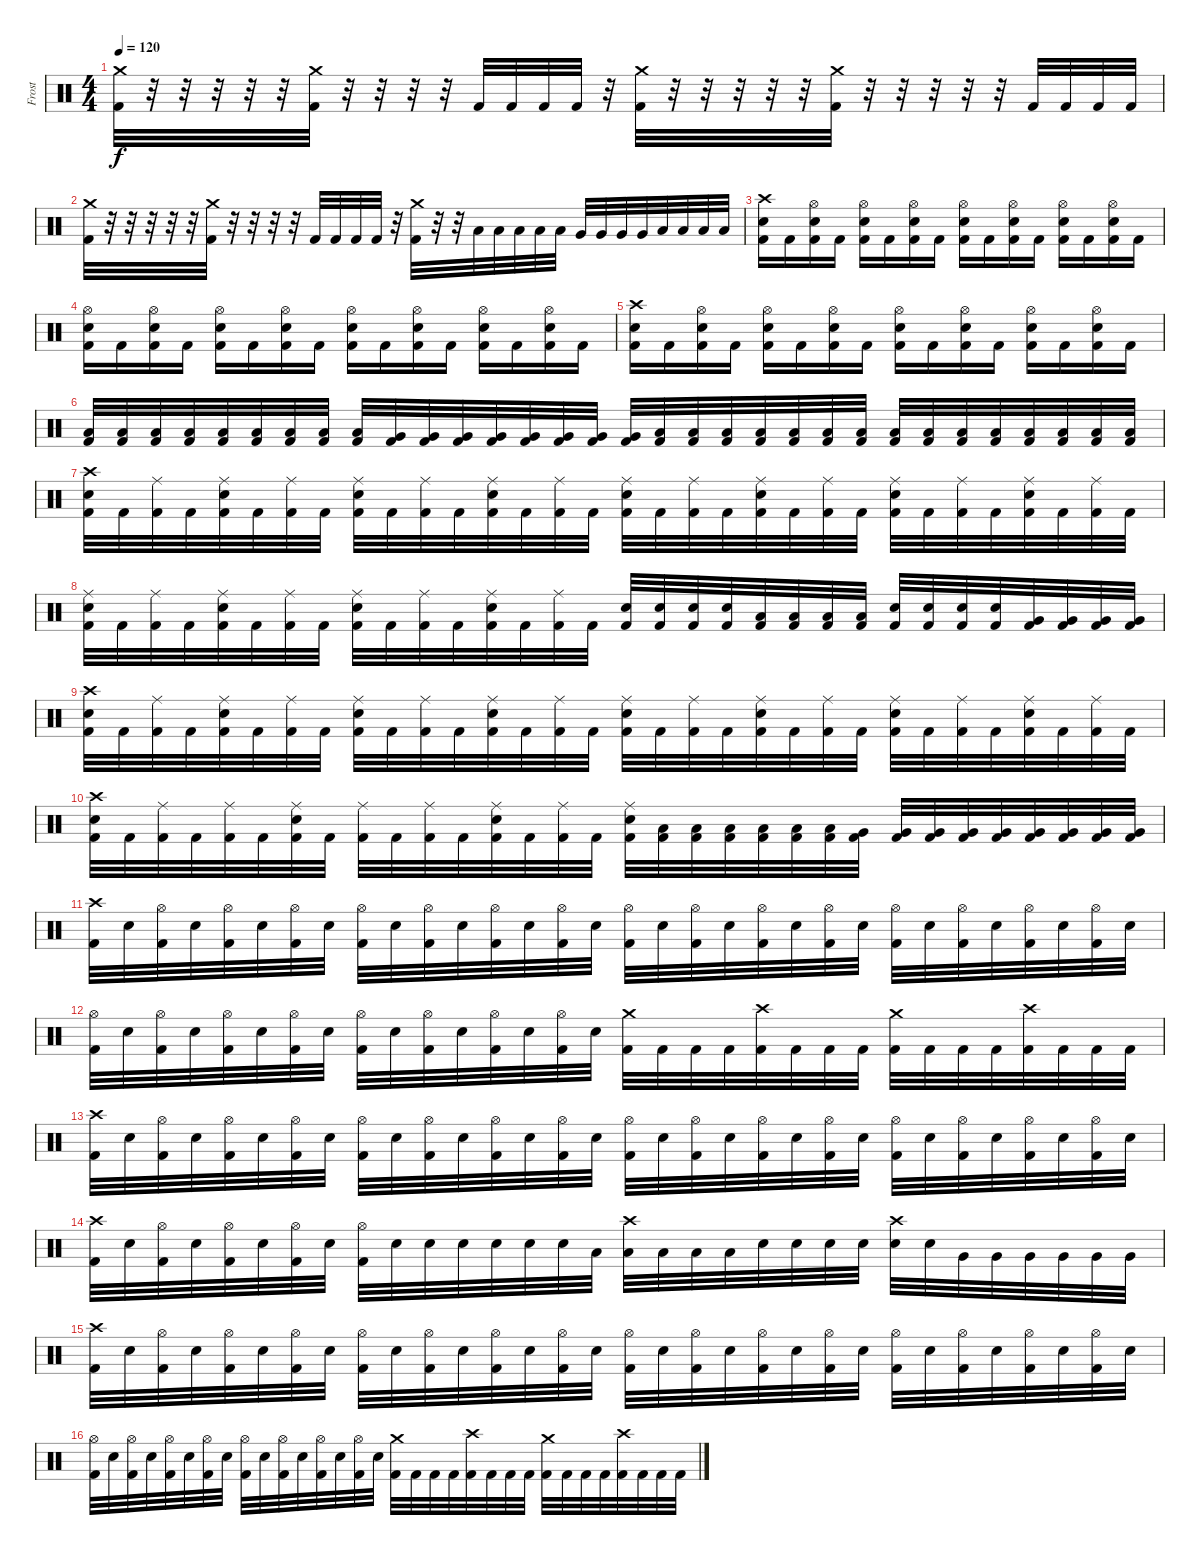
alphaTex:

\track ("Frost" "Frost") {instrument percussion}
\staff {score}
\articulation defaults
\ts (4 4)
\tempo 120
\clef neutral
\ks c
("Crash medium (hit)" "Kick (hit) 2").32{dy f} r.32 r.32 r.32 r.32 r.32 ("Crash medium (hit)" "Kick (hit) 2").32 r.32 r.32 r.32 r.32 "Kick (hit) 2".32 "Kick (hit) 2".32 "Kick (hit) 2".32 "Kick (hit) 2".32 r.32 ("Crash medium (hit)" "Kick (hit) 2").32 r.32 r.32 r.32 r.32 r.32 ("Crash medium (hit)" "Kick (hit) 2").32 r.32 r.32 r.32 r.32 r.32 "Kick (hit) 2".32 "Kick (hit) 2".32 "Kick (hit) 2".32 "Kick (hit) 2".32 |
("Crash medium (hit)" "Kick (hit) 2").32 r.32 r.32 r.32 r.32 r.32 ("Crash medium (hit)" "Kick (hit) 2").32 r.32 r.32 r.32 r.32 "Kick (hit) 2".32 "Kick (hit) 2".32 "Kick (hit) 2".32 "Kick (hit) 2".32 r.32 ("Crash medium (hit)" "Kick (hit) 2").32 r.32 r.32 "Low Tom (hit)".32 "Low Tom (hit)".32 "Low Tom (hit)".32 "Low Tom (hit)".32 "Low Tom (hit)".32 "Very Low Tom (hit)".32 "Very Low Tom (hit)".32 "Very Low Tom (hit)".32 "Very Low Tom (hit)".32 "Low Floor Tom (hit)".32 "Low Floor Tom (hit)".32 "Low Floor Tom (hit)".32 "Low Floor Tom (hit)".32 |
("Crash high (hit)" "Snare (hit) 2" "Kick (hit) 2").16 "Kick (hit) 2".16 ("Hi-Hat (open)" "Snare (hit) 2" "Kick (hit) 2").16 "Kick (hit) 2".16 ("Hi-Hat (open)" "Snare (hit) 2" "Kick (hit) 2").16 "Kick (hit) 2".16 ("Hi-Hat (open)" "Snare (hit) 2" "Kick (hit) 2").16 "Kick (hit) 2".16 ("Hi-Hat (open)" "Snare (hit) 2" "Kick (hit) 2").16 "Kick (hit) 2".16 ("Hi-Hat (open)" "Snare (hit) 2" "Kick (hit) 2").16 "Kick (hit) 2".16 ("Hi-Hat (open)" "Snare (hit) 2" "Kick (hit) 2").16 "Kick (hit) 2".16 ("Hi-Hat (open)" "Snare (hit) 2" "Kick (hit) 2").16 "Kick (hit) 2".16 |
("Hi-Hat (open)" "Snare (hit) 2" "Kick (hit) 2").16 "Kick (hit) 2".16 ("Hi-Hat (open)" "Snare (hit) 2" "Kick (hit) 2").16 "Kick (hit) 2".16 ("Hi-Hat (open)" "Snare (hit) 2" "Kick (hit) 2").16 "Kick (hit) 2".16 ("Hi-Hat (open)" "Snare (hit) 2" "Kick (hit) 2").16 "Kick (hit) 2".16 ("Hi-Hat (open)" "Snare (hit) 2" "Kick (hit) 2").16 "Kick (hit) 2".16 ("Hi-Hat (open)" "Snare (hit) 2" "Kick (hit) 2").16 "Kick (hit) 2".16 ("Hi-Hat (open)" "Snare (hit) 2" "Kick (hit) 2").16 "Kick (hit) 2".16 ("Hi-Hat (open)" "Snare (hit) 2" "Kick (hit) 2").16 "Kick (hit) 2".16 |
("Crash high (hit)" "Snare (hit) 2" "Kick (hit) 2").16 "Kick (hit) 2".16 ("Hi-Hat (open)" "Snare (hit) 2" "Kick (hit) 2").16 "Kick (hit) 2".16 ("Hi-Hat (open)" "Snare (hit) 2" "Kick (hit) 2").16 "Kick (hit) 2".16 ("Hi-Hat (open)" "Snare (hit) 2" "Kick (hit) 2").16 "Kick (hit) 2".16 ("Hi-Hat (open)" "Snare (hit) 2" "Kick (hit) 2").16 "Kick (hit) 2".16 ("Hi-Hat (open)" "Snare (hit) 2" "Kick (hit) 2").16 "Kick (hit) 2".16 ("Hi-Hat (open)" "Snare (hit) 2" "Kick (hit) 2").16 "Kick (hit) 2".16 ("Hi-Hat (open)" "Snare (hit) 2" "Kick (hit) 2").16 "Kick (hit) 2".16 |
("Low Tom (hit)" "Kick (hit) 2").32 ("Low Tom (hit)" "Kick (hit) 2").32 ("Low Tom (hit)" "Kick (hit) 2").32 ("Low Tom (hit)" "Kick (hit) 2").32 ("Low Tom (hit)" "Kick (hit) 2").32 ("Low Tom (hit)" "Kick (hit) 2").32 ("Low Tom (hit)" "Kick (hit) 2").32 ("Low Tom (hit)" "Kick (hit) 2").32 ("Low Tom (hit)" "Kick (hit) 2").32 ("Very Low Tom (hit)" "Kick (hit) 2").32 ("Very Low Tom (hit)" "Kick (hit) 2").32 ("Very Low Tom (hit)" "Kick (hit) 2").32 ("Very Low Tom (hit)" "Kick (hit) 2").32 ("Very Low Tom (hit)" "Kick (hit) 2").32 ("Very Low Tom (hit)" "Kick (hit) 2").32 ("Very Low Tom (hit)" "Kick (hit) 2").32 ("Very Low Tom (hit)" "Kick (hit) 2").32 ("Low Tom (hit)" "Kick (hit) 2").32 ("Low Tom (hit)" "Kick (hit) 2").32 ("Low Tom (hit)" "Kick (hit) 2").32 ("Low Tom (hit)" "Kick (hit) 2").32 ("Low Tom (hit)" "Kick (hit) 2").32 ("Low Tom (hit)" "Kick (hit) 2").32 ("Low Tom (hit)" "Kick (hit) 2").32 ("Low Tom (hit)" "Kick (hit) 2").32 ("Low Floor Tom (hit)" "Kick (hit) 2").32 ("Low Floor Tom (hit)" "Kick (hit) 2").32 ("Low Floor Tom (hit)" "Kick (hit) 2").32 ("Low Floor Tom (hit)" "Kick (hit) 2").32 ("Low Floor Tom (hit)" "Kick (hit) 2").32 ("Low Floor Tom (hit)" "Kick (hit) 2").32 ("Low Floor Tom (hit)" "Kick (hit) 2").32 |
("Crash high (hit)" "Snare (hit) 2" "Kick (hit) 2").32 "Kick (hit) 2".32 ("Ride (middle)" "Kick (hit) 2").32 "Kick (hit) 2".32 ("Ride (middle)" "Snare (hit) 2" "Kick (hit) 2").32 "Kick (hit) 2".32 ("Ride (middle)" "Kick (hit) 2").32 "Kick (hit) 2".32 ("Ride (middle)" "Snare (hit) 2" "Kick (hit) 2").32 "Kick (hit) 2".32 ("Ride (middle)" "Kick (hit) 2").32 "Kick (hit) 2".32 ("Ride (middle)" "Snare (hit) 2" "Kick (hit) 2").32 "Kick (hit) 2".32 ("Ride (middle)" "Kick (hit) 2").32 "Kick (hit) 2".32 ("Ride (middle)" "Snare (hit) 2" "Kick (hit) 2").32 "Kick (hit) 2".32 ("Ride (middle)" "Kick (hit) 2").32 "Kick (hit) 2".32 ("Ride (middle)" "Snare (hit) 2" "Kick (hit) 2").32 "Kick (hit) 2".32 ("Ride (middle)" "Kick (hit) 2").32 "Kick (hit) 2".32 ("Ride (middle)" "Snare (hit) 2" "Kick (hit) 2").32 "Kick (hit) 2".32 ("Ride (middle)" "Kick (hit) 2").32 "Kick (hit) 2".32 ("Ride (middle)" "Snare (hit) 2" "Kick (hit) 2").32 "Kick (hit) 2".32 ("Ride (middle)" "Kick (hit) 2").32 "Kick (hit) 2".32 |
("Ride (middle)" "Snare (hit) 2" "Kick (hit) 2").32 "Kick (hit) 2".32 ("Ride (middle)" "Kick (hit) 2").32 "Kick (hit) 2".32 ("Ride (middle)" "Snare (hit) 2" "Kick (hit) 2").32 "Kick (hit) 2".32 ("Ride (middle)" "Kick (hit) 2").32 "Kick (hit) 2".32 ("Ride (middle)" "Snare (hit) 2" "Kick (hit) 2").32 "Kick (hit) 2".32 ("Ride (middle)" "Kick (hit) 2").32 "Kick (hit) 2".32 ("Ride (middle)" "Snare (hit) 2" "Kick (hit) 2").32 "Kick (hit) 2".32 ("Ride (middle)" "Kick (hit) 2").32 "Kick (hit) 2".32 ("Snare (hit) 2" "Kick (hit) 2").32 ("Snare (hit) 2" "Kick (hit) 2").32 ("Snare (hit) 2" "Kick (hit) 2").32 ("Snare (hit) 2" "Kick (hit) 2").32 ("Low Tom (hit)" "Kick (hit) 2").32 ("Low Tom (hit)" "Kick (hit) 2").32 ("Low Tom (hit)" "Kick (hit) 2").32 ("Low Tom (hit)" "Kick (hit) 2").32 ("Snare (hit) 2" "Kick (hit) 2").32 ("Snare (hit) 2" "Kick (hit) 2").32 ("Snare (hit) 2" "Kick (hit) 2").32 ("Snare (hit) 2" "Kick (hit) 2").32 ("Very Low Tom (hit)" "Kick (hit) 2").32 ("Very Low Tom (hit)" "Kick (hit) 2").32 ("Very Low Tom (hit)" "Kick (hit) 2").32 ("Very Low Tom (hit)" "Kick (hit) 2").32 |
("Crash high (hit)" "Snare (hit) 2" "Kick (hit) 2").32 "Kick (hit) 2".32 ("Ride (middle)" "Kick (hit) 2").32 "Kick (hit) 2".32 ("Ride (middle)" "Snare (hit) 2" "Kick (hit) 2").32 "Kick (hit) 2".32 ("Ride (middle)" "Kick (hit) 2").32 "Kick (hit) 2".32 ("Ride (middle)" "Snare (hit) 2" "Kick (hit) 2").32 "Kick (hit) 2".32 ("Ride (middle)" "Kick (hit) 2").32 "Kick (hit) 2".32 ("Ride (middle)" "Snare (hit) 2" "Kick (hit) 2").32 "Kick (hit) 2".32 ("Ride (middle)" "Kick (hit) 2").32 "Kick (hit) 2".32 ("Ride (middle)" "Snare (hit) 2" "Kick (hit) 2").32 "Kick (hit) 2".32 ("Ride (middle)" "Kick (hit) 2").32 "Kick (hit) 2".32 ("Ride (middle)" "Snare (hit) 2" "Kick (hit) 2").32 "Kick (hit) 2".32 ("Ride (middle)" "Kick (hit) 2").32 "Kick (hit) 2".32 ("Ride (middle)" "Snare (hit) 2" "Kick (hit) 2").32 "Kick (hit) 2".32 ("Ride (middle)" "Kick (hit) 2").32 "Kick (hit) 2".32 ("Ride (middle)" "Snare (hit) 2" "Kick (hit) 2").32 "Kick (hit) 2".32 ("Ride (middle)" "Kick (hit) 2").32 "Kick (hit) 2".32 |
("Crash high (hit)" "Snare (hit) 2" "Kick (hit) 2").32 "Kick (hit) 2".32 ("Ride (middle)" "Kick (hit) 2").32 "Kick (hit) 2".32 ("Ride (middle)" "Kick (hit) 2").32 "Kick (hit) 2".32 ("Ride (middle)" "Snare (hit) 2" "Kick (hit) 2").32 "Kick (hit) 2".32 ("Ride (middle)" "Kick (hit) 2").32 "Kick (hit) 2".32 ("Ride (middle)" "Kick (hit) 2").32 "Kick (hit) 2".32 ("Ride (middle)" "Snare (hit) 2" "Kick (hit) 2").32 "Kick (hit) 2".32 ("Ride (middle)" "Kick (hit) 2").32 "Kick (hit) 2".32 ("Ride (middle)" "Snare (hit) 2" "Kick (hit) 2").32 ("Low Tom (hit)" "Kick (hit) 2").32 ("Low Tom (hit)" "Kick (hit) 2").32 ("Low Tom (hit)" "Kick (hit) 2").32 ("Low Tom (hit)" "Kick (hit) 2").32 ("Low Tom (hit)" "Kick (hit) 2").32 ("Low Tom (hit)" "Kick (hit) 2").32 ("Very Low Tom (hit)" "Kick (hit) 2").32 ("Very Low Tom (hit)" "Kick (hit) 2").32 ("Very Low Tom (hit)" "Kick (hit) 2").32 ("Very Low Tom (hit)" "Kick (hit) 2").32 ("Very Low Tom (hit)" "Kick (hit) 2").32 ("Very Low Tom (hit)" "Kick (hit) 2").32 ("Very Low Tom (hit)" "Kick (hit) 2").32 ("Very Low Tom (hit)" "Kick (hit) 2").32 ("Very Low Tom (hit)" "Kick (hit) 2").32 |
("Crash high (hit)" "Kick (hit) 2").32 "Snare (hit) 2".32 ("Hi-Hat (open)" "Kick (hit) 2").32 "Snare (hit) 2".32 ("Hi-Hat (open)" "Kick (hit) 2").32 "Snare (hit) 2".32 ("Hi-Hat (open)" "Kick (hit) 2").32 "Snare (hit) 2".32 ("Hi-Hat (open)" "Kick (hit) 2").32 "Snare (hit) 2".32 ("Hi-Hat (open)" "Kick (hit) 2").32 "Snare (hit) 2".32 ("Hi-Hat (open)" "Kick (hit) 2").32 "Snare (hit) 2".32 ("Hi-Hat (open)" "Kick (hit) 2").32 "Snare (hit) 2".32 ("Hi-Hat (open)" "Kick (hit) 2").32 "Snare (hit) 2".32 ("Hi-Hat (open)" "Kick (hit) 2").32 "Snare (hit) 2".32 ("Hi-Hat (open)" "Kick (hit) 2").32 "Snare (hit) 2".32 ("Hi-Hat (open)" "Kick (hit) 2").32 "Snare (hit) 2".32 ("Hi-Hat (open)" "Kick (hit) 2").32 "Snare (hit) 2".32 ("Hi-Hat (open)" "Kick (hit) 2").32 "Snare (hit) 2".32 ("Hi-Hat (open)" "Kick (hit) 2").32 "Snare (hit) 2".32 ("Hi-Hat (open)" "Kick (hit) 2").32 "Snare (hit) 2".32 |
("Hi-Hat (open)" "Kick (hit) 2").32 "Snare (hit) 2".32 ("Hi-Hat (open)" "Kick (hit) 2").32 "Snare (hit) 2".32 ("Hi-Hat (open)" "Kick (hit) 2").32 "Snare (hit) 2".32 ("Hi-Hat (open)" "Kick (hit) 2").32 "Snare (hit) 2".32 ("Hi-Hat (open)" "Kick (hit) 2").32 "Snare (hit) 2".32 ("Hi-Hat (open)" "Kick (hit) 2").32 "Snare (hit) 2".32 ("Hi-Hat (open)" "Kick (hit) 2").32 "Snare (hit) 2".32 ("Hi-Hat (open)" "Kick (hit) 2").32 "Snare (hit) 2".32 ("Crash medium (hit)" "Kick (hit) 2").32 "Kick (hit) 2".32 "Kick (hit) 2".32 "Kick (hit) 2".32 ("Crash high (hit)" "Kick (hit) 2").32 "Kick (hit) 2".32 "Kick (hit) 2".32 "Kick (hit) 2".32 ("Crash medium (hit)" "Kick (hit) 2").32 "Kick (hit) 2".32 "Kick (hit) 2".32 "Kick (hit) 2".32 ("Crash high (hit)" "Kick (hit) 2").32 "Kick (hit) 2".32 "Kick (hit) 2".32 "Kick (hit) 2".32 |
("Crash high (hit)" "Kick (hit) 2").32 "Snare (hit) 2".32 ("Hi-Hat (open)" "Kick (hit) 2").32 "Snare (hit) 2".32 ("Hi-Hat (open)" "Kick (hit) 2").32 "Snare (hit) 2".32 ("Hi-Hat (open)" "Kick (hit) 2").32 "Snare (hit) 2".32 ("Hi-Hat (open)" "Kick (hit) 2").32 "Snare (hit) 2".32 ("Hi-Hat (open)" "Kick (hit) 2").32 "Snare (hit) 2".32 ("Hi-Hat (open)" "Kick (hit) 2").32 "Snare (hit) 2".32 ("Hi-Hat (open)" "Kick (hit) 2").32 "Snare (hit) 2".32 ("Hi-Hat (open)" "Kick (hit) 2").32 "Snare (hit) 2".32 ("Hi-Hat (open)" "Kick (hit) 2").32 "Snare (hit) 2".32 ("Hi-Hat (open)" "Kick (hit) 2").32 "Snare (hit) 2".32 ("Hi-Hat (open)" "Kick (hit) 2").32 "Snare (hit) 2".32 ("Hi-Hat (open)" "Kick (hit) 2").32 "Snare (hit) 2".32 ("Hi-Hat (open)" "Kick (hit) 2").32 "Snare (hit) 2".32 ("Hi-Hat (open)" "Kick (hit) 2").32 "Snare (hit) 2".32 ("Hi-Hat (open)" "Kick (hit) 2").32 "Snare (hit) 2".32 |
("Crash high (hit)" "Kick (hit) 2").32 "Snare (hit) 2".32 ("Hi-Hat (open)" "Kick (hit) 2").32 "Snare (hit) 2".32 ("Hi-Hat (open)" "Kick (hit) 2").32 "Snare (hit) 2".32 ("Hi-Hat (open)" "Kick (hit) 2").32 "Snare (hit) 2".32 ("Hi-Hat (open)" "Kick (hit) 2").32 "Snare (hit) 2".32 "Snare (hit) 2".32 "Snare (hit) 2".32 "Snare (hit) 2".32 "Snare (hit) 2".32 "Snare (hit) 2".32 "Low Tom (hit)".32 ("Crash high (hit)" "Low Tom (hit)").32 "Low Tom (hit)".32 "Low Tom (hit)".32 "Low Tom (hit)".32 "Snare (hit) 2".32 "Snare (hit) 2".32 "Snare (hit) 2".32 "Snare (hit) 2".32 ("Crash high (hit)" "Snare (hit) 2").32 "Snare (hit) 2".32 "Very Low Tom (hit)".32 "Very Low Tom (hit)".32 "Very Low Tom (hit)".32 "Very Low Tom (hit)".32 "Very Low Tom (hit)".32 "Very Low Tom (hit)".32 |
("Crash high (hit)" "Kick (hit) 2").32 "Snare (hit) 2".32 ("Hi-Hat (open)" "Kick (hit) 2").32 "Snare (hit) 2".32 ("Hi-Hat (open)" "Kick (hit) 2").32 "Snare (hit) 2".32 ("Hi-Hat (open)" "Kick (hit) 2").32 "Snare (hit) 2".32 ("Hi-Hat (open)" "Kick (hit) 2").32 "Snare (hit) 2".32 ("Hi-Hat (open)" "Kick (hit) 2").32 "Snare (hit) 2".32 ("Hi-Hat (open)" "Kick (hit) 2").32 "Snare (hit) 2".32 ("Hi-Hat (open)" "Kick (hit) 2").32 "Snare (hit) 2".32 ("Hi-Hat (open)" "Kick (hit) 2").32 "Snare (hit) 2".32 ("Hi-Hat (open)" "Kick (hit) 2").32 "Snare (hit) 2".32 ("Hi-Hat (open)" "Kick (hit) 2").32 "Snare (hit) 2".32 ("Hi-Hat (open)" "Kick (hit) 2").32 "Snare (hit) 2".32 ("Hi-Hat (open)" "Kick (hit) 2").32 "Snare (hit) 2".32 ("Hi-Hat (open)" "Kick (hit) 2").32 "Snare (hit) 2".32 ("Hi-Hat (open)" "Kick (hit) 2").32 "Snare (hit) 2".32 ("Hi-Hat (open)" "Kick (hit) 2").32 "Snare (hit) 2".32 |
("Hi-Hat (open)" "Kick (hit) 2").32 "Snare (hit) 2".32 ("Hi-Hat (open)" "Kick (hit) 2").32 "Snare (hit) 2".32 ("Hi-Hat (open)" "Kick (hit) 2").32 "Snare (hit) 2".32 ("Hi-Hat (open)" "Kick (hit) 2").32 "Snare (hit) 2".32 ("Hi-Hat (open)" "Kick (hit) 2").32 "Snare (hit) 2".32 ("Hi-Hat (open)" "Kick (hit) 2").32 "Snare (hit) 2".32 ("Hi-Hat (open)" "Kick (hit) 2").32 "Snare (hit) 2".32 ("Hi-Hat (open)" "Kick (hit) 2").32 "Snare (hit) 2".32 ("Crash medium (hit)" "Kick (hit) 2").32 "Kick (hit) 2".32 "Kick (hit) 2".32 "Kick (hit) 2".32 ("Crash high (hit)" "Kick (hit) 2").32 "Kick (hit) 2".32 "Kick (hit) 2".32 "Kick (hit) 2".32 ("Crash medium (hit)" "Kick (hit) 2").32 "Kick (hit) 2".32 "Kick (hit) 2".32 "Kick (hit) 2".32 ("Crash high (hit)" "Kick (hit) 2").32 "Kick (hit) 2".32 "Kick (hit) 2".32 "Kick (hit) 2".32
